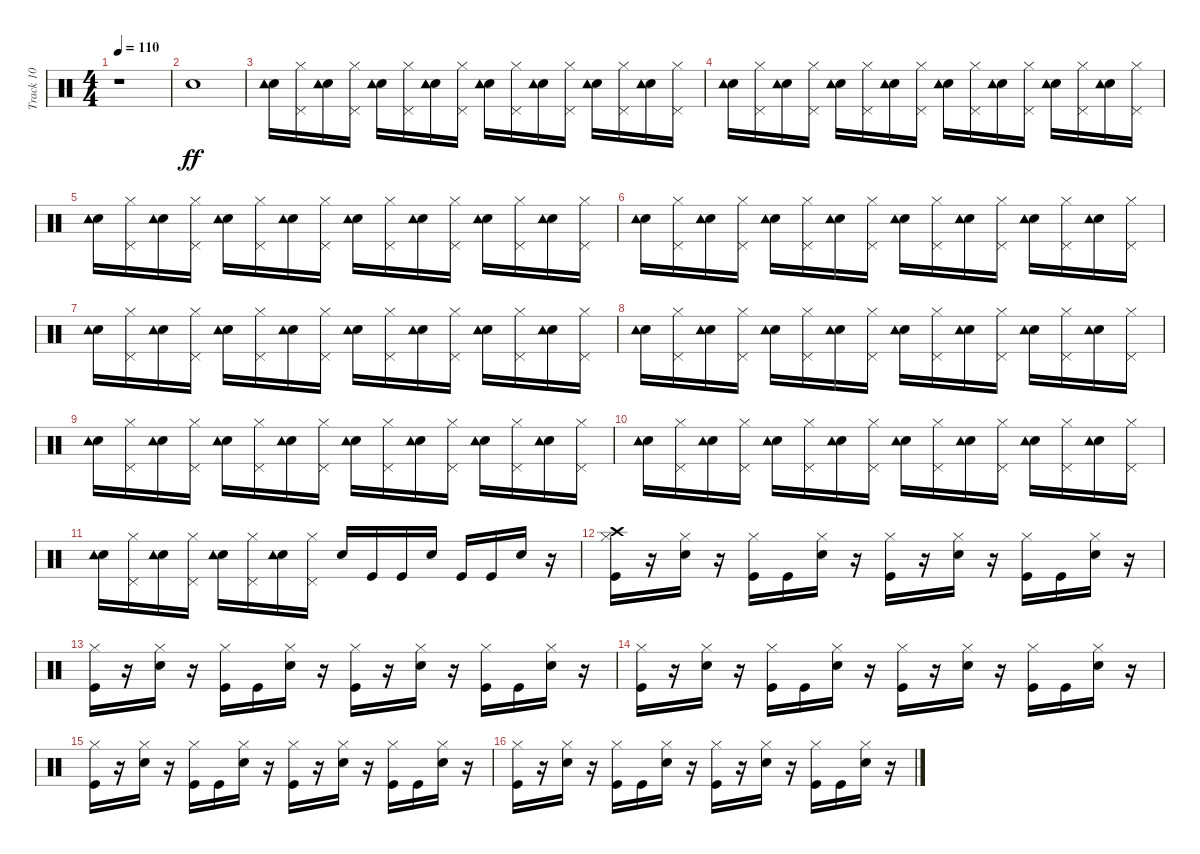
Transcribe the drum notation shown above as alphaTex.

\track ("Track 10" "Track 10") {instrument percussion}
\staff {score}
\articulation defaults
\ts (4 4)
\tempo 110
\clef neutral
\ks c
r.1{dy ff} |
"Snare (hit)".1 |
("Snare (hit)" "Tambourine (hit)").16 ("Hi-Hat (closed)" "Pedal Hi-Hat (hit)").16 ("Snare (hit)" "Tambourine (hit)").16 ("Hi-Hat (closed)" "Pedal Hi-Hat (hit)").16 ("Snare (hit)" "Tambourine (hit)").16 ("Hi-Hat (closed)" "Pedal Hi-Hat (hit)").16 ("Snare (hit)" "Tambourine (hit)").16 ("Hi-Hat (closed)" "Pedal Hi-Hat (hit)").16 ("Snare (hit)" "Tambourine (hit)").16 ("Hi-Hat (closed)" "Pedal Hi-Hat (hit)").16 ("Snare (hit)" "Tambourine (hit)").16 ("Hi-Hat (closed)" "Pedal Hi-Hat (hit)").16 ("Snare (hit)" "Tambourine (hit)").16 ("Hi-Hat (closed)" "Pedal Hi-Hat (hit)").16 ("Snare (hit)" "Tambourine (hit)").16 ("Hi-Hat (closed)" "Pedal Hi-Hat (hit)").16 |
("Snare (hit)" "Tambourine (hit)").16 ("Hi-Hat (closed)" "Pedal Hi-Hat (hit)").16 ("Snare (hit)" "Tambourine (hit)").16 ("Hi-Hat (closed)" "Pedal Hi-Hat (hit)").16 ("Snare (hit)" "Tambourine (hit)").16 ("Hi-Hat (closed)" "Pedal Hi-Hat (hit)").16 ("Snare (hit)" "Tambourine (hit)").16 ("Hi-Hat (closed)" "Pedal Hi-Hat (hit)").16 ("Snare (hit)" "Tambourine (hit)").16 ("Hi-Hat (closed)" "Pedal Hi-Hat (hit)").16 ("Snare (hit)" "Tambourine (hit)").16 ("Hi-Hat (closed)" "Pedal Hi-Hat (hit)").16 ("Snare (hit)" "Tambourine (hit)").16 ("Hi-Hat (closed)" "Pedal Hi-Hat (hit)").16 ("Snare (hit)" "Tambourine (hit)").16 ("Hi-Hat (closed)" "Pedal Hi-Hat (hit)").16 |
("Snare (hit)" "Tambourine (hit)").16 ("Hi-Hat (closed)" "Pedal Hi-Hat (hit)").16 ("Snare (hit)" "Tambourine (hit)").16 ("Hi-Hat (closed)" "Pedal Hi-Hat (hit)").16 ("Snare (hit)" "Tambourine (hit)").16 ("Hi-Hat (closed)" "Pedal Hi-Hat (hit)").16 ("Snare (hit)" "Tambourine (hit)").16 ("Hi-Hat (closed)" "Pedal Hi-Hat (hit)").16 ("Snare (hit)" "Tambourine (hit)").16 ("Hi-Hat (closed)" "Pedal Hi-Hat (hit)").16 ("Snare (hit)" "Tambourine (hit)").16 ("Hi-Hat (closed)" "Pedal Hi-Hat (hit)").16 ("Snare (hit)" "Tambourine (hit)").16 ("Hi-Hat (closed)" "Pedal Hi-Hat (hit)").16 ("Snare (hit)" "Tambourine (hit)").16 ("Hi-Hat (closed)" "Pedal Hi-Hat (hit)").16 |
("Snare (hit)" "Tambourine (hit)").16 ("Hi-Hat (closed)" "Pedal Hi-Hat (hit)").16 ("Snare (hit)" "Tambourine (hit)").16 ("Hi-Hat (closed)" "Pedal Hi-Hat (hit)").16 ("Snare (hit)" "Tambourine (hit)").16 ("Hi-Hat (closed)" "Pedal Hi-Hat (hit)").16 ("Snare (hit)" "Tambourine (hit)").16 ("Hi-Hat (closed)" "Pedal Hi-Hat (hit)").16 ("Snare (hit)" "Tambourine (hit)").16 ("Hi-Hat (closed)" "Pedal Hi-Hat (hit)").16 ("Snare (hit)" "Tambourine (hit)").16 ("Hi-Hat (closed)" "Pedal Hi-Hat (hit)").16 ("Snare (hit)" "Tambourine (hit)").16 ("Hi-Hat (closed)" "Pedal Hi-Hat (hit)").16 ("Snare (hit)" "Tambourine (hit)").16 ("Hi-Hat (closed)" "Pedal Hi-Hat (hit)").16 |
("Snare (hit)" "Tambourine (hit)").16 ("Hi-Hat (closed)" "Pedal Hi-Hat (hit)").16 ("Snare (hit)" "Tambourine (hit)").16 ("Hi-Hat (closed)" "Pedal Hi-Hat (hit)").16 ("Snare (hit)" "Tambourine (hit)").16 ("Hi-Hat (closed)" "Pedal Hi-Hat (hit)").16 ("Snare (hit)" "Tambourine (hit)").16 ("Hi-Hat (closed)" "Pedal Hi-Hat (hit)").16 ("Snare (hit)" "Tambourine (hit)").16 ("Hi-Hat (closed)" "Pedal Hi-Hat (hit)").16 ("Snare (hit)" "Tambourine (hit)").16 ("Hi-Hat (closed)" "Pedal Hi-Hat (hit)").16 ("Snare (hit)" "Tambourine (hit)").16 ("Hi-Hat (closed)" "Pedal Hi-Hat (hit)").16 ("Snare (hit)" "Tambourine (hit)").16 ("Hi-Hat (closed)" "Pedal Hi-Hat (hit)").16 |
("Snare (hit)" "Tambourine (hit)").16 ("Hi-Hat (closed)" "Pedal Hi-Hat (hit)").16 ("Snare (hit)" "Tambourine (hit)").16 ("Hi-Hat (closed)" "Pedal Hi-Hat (hit)").16 ("Snare (hit)" "Tambourine (hit)").16 ("Hi-Hat (closed)" "Pedal Hi-Hat (hit)").16 ("Snare (hit)" "Tambourine (hit)").16 ("Hi-Hat (closed)" "Pedal Hi-Hat (hit)").16 ("Snare (hit)" "Tambourine (hit)").16 ("Hi-Hat (closed)" "Pedal Hi-Hat (hit)").16 ("Snare (hit)" "Tambourine (hit)").16 ("Hi-Hat (closed)" "Pedal Hi-Hat (hit)").16 ("Snare (hit)" "Tambourine (hit)").16 ("Hi-Hat (closed)" "Pedal Hi-Hat (hit)").16 ("Snare (hit)" "Tambourine (hit)").16 ("Hi-Hat (closed)" "Pedal Hi-Hat (hit)").16 |
("Snare (hit)" "Tambourine (hit)").16 ("Hi-Hat (closed)" "Pedal Hi-Hat (hit)").16 ("Snare (hit)" "Tambourine (hit)").16 ("Hi-Hat (closed)" "Pedal Hi-Hat (hit)").16 ("Snare (hit)" "Tambourine (hit)").16 ("Hi-Hat (closed)" "Pedal Hi-Hat (hit)").16 ("Snare (hit)" "Tambourine (hit)").16 ("Hi-Hat (closed)" "Pedal Hi-Hat (hit)").16 ("Snare (hit)" "Tambourine (hit)").16 ("Hi-Hat (closed)" "Pedal Hi-Hat (hit)").16 ("Snare (hit)" "Tambourine (hit)").16 ("Hi-Hat (closed)" "Pedal Hi-Hat (hit)").16 ("Snare (hit)" "Tambourine (hit)").16 ("Hi-Hat (closed)" "Pedal Hi-Hat (hit)").16 ("Snare (hit)" "Tambourine (hit)").16 ("Hi-Hat (closed)" "Pedal Hi-Hat (hit)").16 |
("Snare (hit)" "Tambourine (hit)").16 ("Hi-Hat (closed)" "Pedal Hi-Hat (hit)").16 ("Snare (hit)" "Tambourine (hit)").16 ("Hi-Hat (closed)" "Pedal Hi-Hat (hit)").16 ("Snare (hit)" "Tambourine (hit)").16 ("Hi-Hat (closed)" "Pedal Hi-Hat (hit)").16 ("Snare (hit)" "Tambourine (hit)").16 ("Hi-Hat (closed)" "Pedal Hi-Hat (hit)").16 ("Snare (hit)" "Tambourine (hit)").16 ("Hi-Hat (closed)" "Pedal Hi-Hat (hit)").16 ("Snare (hit)" "Tambourine (hit)").16 ("Hi-Hat (closed)" "Pedal Hi-Hat (hit)").16 ("Snare (hit)" "Tambourine (hit)").16 ("Hi-Hat (closed)" "Pedal Hi-Hat (hit)").16 ("Snare (hit)" "Tambourine (hit)").16 ("Hi-Hat (closed)" "Pedal Hi-Hat (hit)").16 |
("Snare (hit)" "Tambourine (hit)").16 ("Hi-Hat (closed)" "Pedal Hi-Hat (hit)").16 ("Snare (hit)" "Tambourine (hit)").16 ("Hi-Hat (closed)" "Pedal Hi-Hat (hit)").16 ("Snare (hit)" "Tambourine (hit)").16 ("Hi-Hat (closed)" "Pedal Hi-Hat (hit)").16 ("Snare (hit)" "Tambourine (hit)").16 ("Hi-Hat (closed)" "Pedal Hi-Hat (hit)").16 "Electric Snare (hit)".16 "Kick (hit)".16 "Kick (hit)".16 "Electric Snare (hit)".16 "Kick (hit)".16 "Kick (hit)".16 "Electric Snare (hit)".16 r.16 |
("Kick (hit)" "Hi-Hat (closed)" "Crash high (hit)").16 r.16 ("Electric Snare (hit)" "Hi-Hat (closed)").16 r.16 ("Kick (hit)" "Hi-Hat (closed)").16 "Kick (hit)".16 ("Electric Snare (hit)" "Hi-Hat (closed)").16 r.16 ("Kick (hit)" "Hi-Hat (closed)").16 r.16 ("Electric Snare (hit)" "Hi-Hat (closed)").16 r.16 ("Kick (hit)" "Hi-Hat (closed)").16 "Kick (hit)".16 ("Electric Snare (hit)" "Hi-Hat (closed)").16 r.16 |
("Kick (hit)" "Hi-Hat (closed)").16 r.16 ("Electric Snare (hit)" "Hi-Hat (closed)").16 r.16 ("Kick (hit)" "Hi-Hat (closed)").16 "Kick (hit)".16 ("Electric Snare (hit)" "Hi-Hat (closed)").16 r.16 ("Kick (hit)" "Hi-Hat (closed)").16 r.16 ("Electric Snare (hit)" "Hi-Hat (closed)").16 r.16 ("Kick (hit)" "Hi-Hat (closed)").16 "Kick (hit)".16 ("Electric Snare (hit)" "Hi-Hat (closed)").16 r.16 |
("Kick (hit)" "Hi-Hat (closed)").16 r.16 ("Electric Snare (hit)" "Hi-Hat (closed)").16 r.16 ("Kick (hit)" "Hi-Hat (closed)").16 "Kick (hit)".16 ("Electric Snare (hit)" "Hi-Hat (closed)").16 r.16 ("Kick (hit)" "Hi-Hat (closed)").16 r.16 ("Electric Snare (hit)" "Hi-Hat (closed)").16 r.16 ("Kick (hit)" "Hi-Hat (closed)").16 "Kick (hit)".16 ("Electric Snare (hit)" "Hi-Hat (closed)").16 r.16 |
("Kick (hit)" "Hi-Hat (closed)").16 r.16 ("Electric Snare (hit)" "Hi-Hat (closed)").16 r.16 ("Kick (hit)" "Hi-Hat (closed)").16 "Kick (hit)".16 ("Electric Snare (hit)" "Hi-Hat (closed)").16 r.16 ("Kick (hit)" "Hi-Hat (closed)").16 r.16 ("Electric Snare (hit)" "Hi-Hat (closed)").16 r.16 ("Kick (hit)" "Hi-Hat (closed)").16 "Kick (hit)".16 ("Electric Snare (hit)" "Hi-Hat (closed)").16 r.16 |
("Kick (hit)" "Hi-Hat (closed)").16 r.16 ("Electric Snare (hit)" "Hi-Hat (closed)").16 r.16 ("Kick (hit)" "Hi-Hat (closed)").16 "Kick (hit)".16 ("Electric Snare (hit)" "Hi-Hat (closed)").16 r.16 ("Kick (hit)" "Hi-Hat (closed)").16 r.16 ("Electric Snare (hit)" "Hi-Hat (closed)").16 r.16 ("Kick (hit)" "Hi-Hat (closed)").16 "Kick (hit)".16 ("Electric Snare (hit)" "Hi-Hat (closed)").16 r.16
